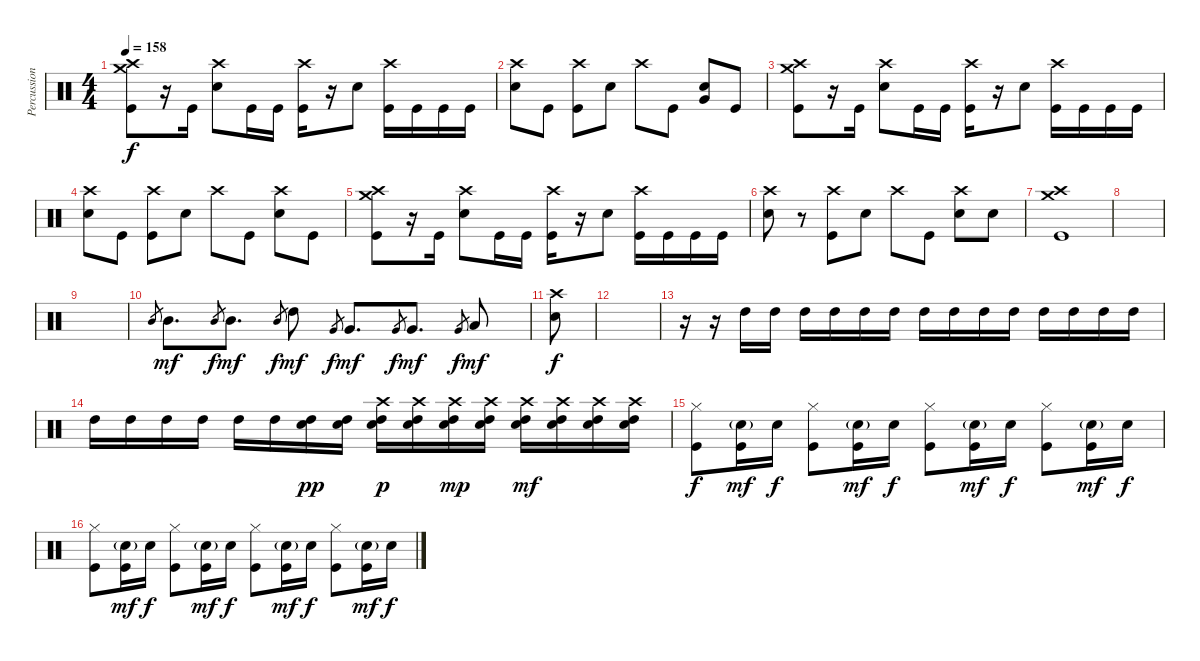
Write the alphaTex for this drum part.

\track ("Percussion" "Percussion") {instrument percussion}
\staff {score}
\articulation defaults
\ts (4 4)
\tempo 158
\clef neutral
\ks c
("Crash high (hit)" "Crash medium (hit)" "Kick (hit)").8{dy f} r.16 "Kick (hit)".16 ("Crash high (hit)" "Snare (hit) 2").8 "Kick (hit)".16 "Kick (hit)".16 ("Crash high (hit)" "Kick (hit)").16 r.16 "Snare (hit) 2".8 ("Crash high (hit)" "Kick (hit)").16 "Kick (hit)".16 "Kick (hit)".16 "Kick (hit)".16 |
("Crash high (hit)" "Snare (hit) 2").8 "Kick (hit)".8 ("Crash high (hit)" "Kick (hit)").8 "Snare (hit) 2".8 "Crash high (hit)".8 "Kick (hit)".8 ("Very Low Tom (hit)" "Snare (hit) 2").8 "Kick (hit)".8 |
("Crash high (hit)" "Crash medium (hit)" "Kick (hit)").8 r.16 "Kick (hit)".16 ("Crash high (hit)" "Snare (hit) 2").8 "Kick (hit)".16 "Kick (hit)".16 ("Crash high (hit)" "Kick (hit)").16 r.16 "Snare (hit) 2".8 ("Crash high (hit)" "Kick (hit)").16 "Kick (hit)".16 "Kick (hit)".16 "Kick (hit)".16 |
("Crash high (hit)" "Snare (hit) 2").8 "Kick (hit)".8 ("Crash high (hit)" "Kick (hit)").8 "Snare (hit) 2".8 "Crash high (hit)".8 "Kick (hit)".8 ("Crash high (hit)" "Snare (hit) 2").8 "Kick (hit)".8 |
("Crash high (hit)" "Crash medium (hit)" "Kick (hit)").8 r.16 "Kick (hit)".16 ("Crash high (hit)" "Snare (hit) 2").8 "Kick (hit)".16 "Kick (hit)".16 ("Crash high (hit)" "Kick (hit)").16 r.16 "Snare (hit) 2".8 ("Crash high (hit)" "Kick (hit)").16 "Kick (hit)".16 "Kick (hit)".16 "Kick (hit)".16 |
("Crash high (hit)" "Snare (hit) 2").8 r.8 ("Crash high (hit)" "Kick (hit)").8 "Snare (hit) 2".8 "Crash high (hit)".8 "Kick (hit)".8 ("Crash high (hit)" "Snare (hit) 2").8 "Snare (hit) 2".8 |
("Crash high (hit)" "Crash medium (hit)" "Kick (hit)").1 |
|
|
"Mid Tom (hit)".8{gr} "Mid Tom (hit)".8{d dy mf balance 16} "Mid Tom (hit)".8{gr dy f} "Mid Tom (hit)".8{d dy mf} "Mid Tom (hit)".8{gr dy f} "High Tom (hit)".8{dy mf} "Very Low Tom (hit)".8{gr dy f} "Very Low Tom (hit)".8{d dy mf} "Very Low Tom (hit)".8{gr dy f} "Very Low Tom (hit)".8{d dy mf} "Very Low Tom (hit)".8{gr dy f} "Low Tom (hit)".8{dy mf} |
("Crash high (hit)" "Snare (hit) 2").8{dy f balance 8} |
|
r.16{volume 9} r.16 "High Tom (hit)".16 "High Tom (hit)".16 "High Tom (hit)".16 "High Tom (hit)".16 "High Tom (hit)".16 "High Tom (hit)".16 "High Tom (hit)".16 "High Tom (hit)".16 "High Tom (hit)".16 "High Tom (hit)".16 "High Tom (hit)".16 "High Tom (hit)".16 "High Tom (hit)".16 "High Tom (hit)".16 |
"High Tom (hit)".16 "High Tom (hit)".16 "High Tom (hit)".16 "High Tom (hit)".16 "High Tom (hit)".16 "High Tom (hit)".16 ("Snare (hit) 2" "High Tom (hit)").16{dy pp} ("Snare (hit) 2" "High Tom (hit)").16 ("Crash high (hit)" "Snare (hit) 2" "High Tom (hit)").16{dy p} ("Crash high (hit)" "Snare (hit) 2" "High Tom (hit)").16 ("Crash high (hit)" "Snare (hit) 2" "High Tom (hit)").16{dy mp} ("Crash high (hit)" "Snare (hit) 2" "High Tom (hit)").16 ("Crash high (hit)" "Snare (hit) 2" "High Tom (hit)").16{dy mf} ("Crash high (hit)" "Snare (hit) 2" "High Tom (hit)").16 ("Crash high (hit)" "Snare (hit) 2" "High Tom (hit)").16 ("Crash high (hit)" "Snare (hit) 2" "High Tom (hit)").16 |
("Hi-Hat (closed)" "Kick (hit)").8{dy f volume 12} ("Snare (hit) 2"{g} "Kick (hit)").16{dy mf} "Snare (hit) 2".16{dy f} ("Hi-Hat (closed)" "Kick (hit)").8 ("Snare (hit) 2"{g} "Kick (hit)").16{dy mf} "Snare (hit) 2".16{dy f} ("Hi-Hat (closed)" "Kick (hit)").8 ("Snare (hit) 2"{g} "Kick (hit)").16{dy mf} "Snare (hit) 2".16{dy f} ("Hi-Hat (closed)" "Kick (hit)").8 ("Snare (hit) 2"{g} "Kick (hit)").16{dy mf} "Snare (hit) 2".16{dy f} |
("Hi-Hat (closed)" "Kick (hit)").8 ("Snare (hit) 2"{g} "Kick (hit)").16{dy mf} "Snare (hit) 2".16{dy f} ("Hi-Hat (closed)" "Kick (hit)").8 ("Snare (hit) 2"{g} "Kick (hit)").16{dy mf} "Snare (hit) 2".16{dy f} ("Hi-Hat (closed)" "Kick (hit)").8 ("Snare (hit) 2"{g} "Kick (hit)").16{dy mf} "Snare (hit) 2".16{dy f} ("Hi-Hat (closed)" "Kick (hit)").8 ("Snare (hit) 2"{g} "Kick (hit)").16{dy mf} "Snare (hit) 2".16{dy f}
